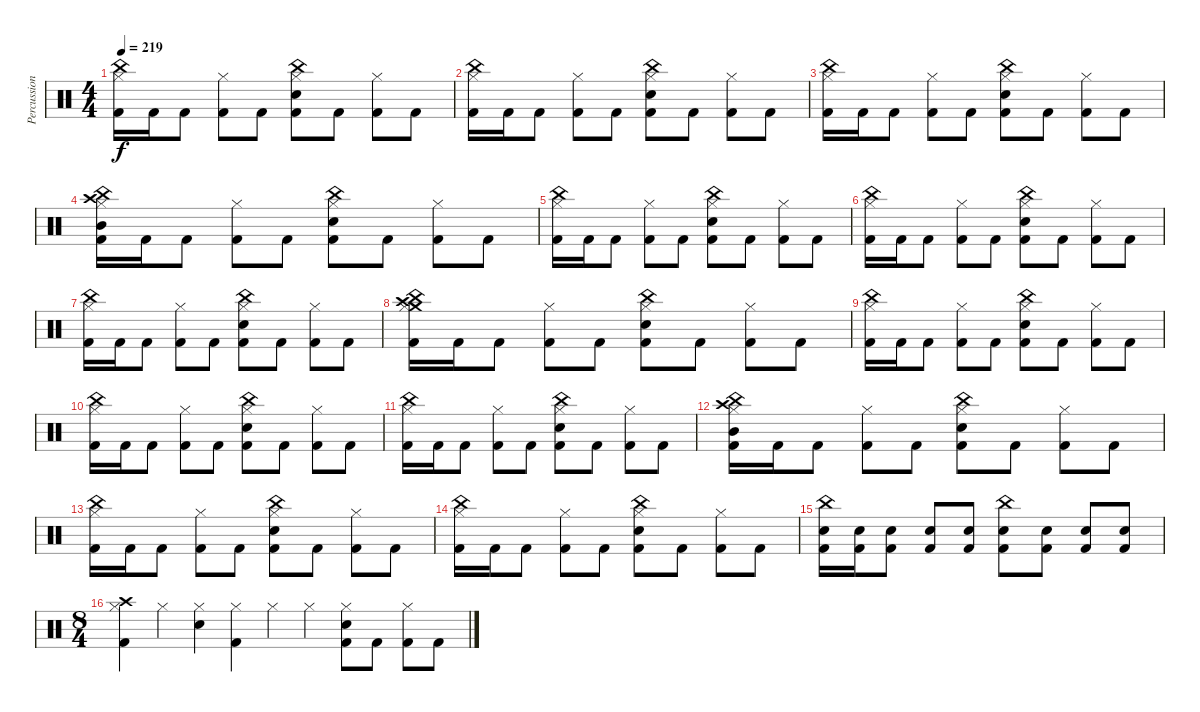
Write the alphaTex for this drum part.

\track ("Percussion" "Percussion") {instrument percussion}
\staff {score}
\articulation defaults
\ts (4 4)
\tempo 219
\clef neutral
\ks c
("China (hit)" "Hi-Hat (closed)" "Kick (hit) 2").16{dy f} "Kick (hit) 2".16 "Kick (hit) 2".8 ("Hi-Hat (closed)" "Kick (hit) 2").8 "Kick (hit) 2".8 ("China (hit)" "Hi-Hat (closed)" "Electric Snare (hit)" "Kick (hit) 2").8 "Kick (hit) 2".8 ("Hi-Hat (closed)" "Kick (hit) 2").8 "Kick (hit) 2".8 |
("China (hit)" "Hi-Hat (closed)" "Kick (hit) 2").16 "Kick (hit) 2".16 "Kick (hit) 2".8 ("Hi-Hat (closed)" "Kick (hit) 2").8 "Kick (hit) 2".8 ("China (hit)" "Hi-Hat (closed)" "Electric Snare (hit)" "Kick (hit) 2").8 "Kick (hit) 2".8 ("Hi-Hat (closed)" "Kick (hit) 2").8 "Kick (hit) 2".8 |
("China (hit)" "Hi-Hat (closed)" "Kick (hit) 2").16 "Kick (hit) 2".16 "Kick (hit) 2".8 ("Hi-Hat (closed)" "Kick (hit) 2").8 "Kick (hit) 2".8 ("China (hit)" "Hi-Hat (closed)" "Electric Snare (hit)" "Kick (hit) 2").8 "Kick (hit) 2".8 ("Hi-Hat (closed)" "Kick (hit) 2").8 "Kick (hit) 2".8 |
("China (hit)" "Crash high (hit)" "Mid Tom (hit)" "Hi-Hat (closed)" "Kick (hit) 2").16 "Kick (hit) 2".16 "Kick (hit) 2".8 ("Hi-Hat (closed)" "Kick (hit) 2").8 "Kick (hit) 2".8 ("China (hit)" "Hi-Hat (closed)" "Electric Snare (hit)" "Kick (hit) 2").8 "Kick (hit) 2".8 ("Hi-Hat (closed)" "Kick (hit) 2").8 "Kick (hit) 2".8 |
("China (hit)" "Hi-Hat (closed)" "Kick (hit) 2").16 "Kick (hit) 2".16 "Kick (hit) 2".8 ("Hi-Hat (closed)" "Kick (hit) 2").8 "Kick (hit) 2".8 ("China (hit)" "Hi-Hat (closed)" "Electric Snare (hit)" "Kick (hit) 2").8 "Kick (hit) 2".8 ("Hi-Hat (closed)" "Kick (hit) 2").8 "Kick (hit) 2".8 |
("China (hit)" "Hi-Hat (closed)" "Kick (hit) 2").16 "Kick (hit) 2".16 "Kick (hit) 2".8 ("Hi-Hat (closed)" "Kick (hit) 2").8 "Kick (hit) 2".8 ("China (hit)" "Hi-Hat (closed)" "Electric Snare (hit)" "Kick (hit) 2").8 "Kick (hit) 2".8 ("Hi-Hat (closed)" "Kick (hit) 2").8 "Kick (hit) 2".8 |
("China (hit)" "Hi-Hat (closed)" "Kick (hit) 2").16 "Kick (hit) 2".16 "Kick (hit) 2".8 ("Hi-Hat (closed)" "Kick (hit) 2").8 "Kick (hit) 2".8 ("China (hit)" "Hi-Hat (closed)" "Electric Snare (hit)" "Kick (hit) 2").8 "Kick (hit) 2".8 ("Hi-Hat (closed)" "Kick (hit) 2").8 "Kick (hit) 2".8 |
("China (hit)" "Crash high (hit)" "Crash medium (hit)" "Hi-Hat (closed)" "Kick (hit) 2").16 "Kick (hit) 2".16 "Kick (hit) 2".8 ("Hi-Hat (closed)" "Kick (hit) 2").8 "Kick (hit) 2".8 ("China (hit)" "Hi-Hat (closed)" "Electric Snare (hit)" "Kick (hit) 2").8 "Kick (hit) 2".8 ("Hi-Hat (closed)" "Kick (hit) 2").8 "Kick (hit) 2".8 |
("China (hit)" "Hi-Hat (closed)" "Kick (hit) 2").16 "Kick (hit) 2".16 "Kick (hit) 2".8 ("Hi-Hat (closed)" "Kick (hit) 2").8 "Kick (hit) 2".8 ("China (hit)" "Hi-Hat (closed)" "Electric Snare (hit)" "Kick (hit) 2").8 "Kick (hit) 2".8 ("Hi-Hat (closed)" "Kick (hit) 2").8 "Kick (hit) 2".8 |
("China (hit)" "Hi-Hat (closed)" "Kick (hit) 2").16 "Kick (hit) 2".16 "Kick (hit) 2".8 ("Hi-Hat (closed)" "Kick (hit) 2").8 "Kick (hit) 2".8 ("China (hit)" "Hi-Hat (closed)" "Electric Snare (hit)" "Kick (hit) 2").8 "Kick (hit) 2".8 ("Hi-Hat (closed)" "Kick (hit) 2").8 "Kick (hit) 2".8 |
("China (hit)" "Hi-Hat (closed)" "Kick (hit) 2").16 "Kick (hit) 2".16 "Kick (hit) 2".8 ("Hi-Hat (closed)" "Kick (hit) 2").8 "Kick (hit) 2".8 ("China (hit)" "Hi-Hat (closed)" "Electric Snare (hit)" "Kick (hit) 2").8 "Kick (hit) 2".8 ("Hi-Hat (closed)" "Kick (hit) 2").8 "Kick (hit) 2".8 |
("China (hit)" "Crash high (hit)" "Mid Tom (hit)" "Hi-Hat (closed)" "Kick (hit) 2").16 "Kick (hit) 2".16 "Kick (hit) 2".8 ("Hi-Hat (closed)" "Kick (hit) 2").8 "Kick (hit) 2".8 ("China (hit)" "Hi-Hat (closed)" "Electric Snare (hit)" "Kick (hit) 2").8 "Kick (hit) 2".8 ("Hi-Hat (closed)" "Kick (hit) 2").8 "Kick (hit) 2".8 |
("China (hit)" "Hi-Hat (closed)" "Kick (hit) 2").16 "Kick (hit) 2".16 "Kick (hit) 2".8 ("Hi-Hat (closed)" "Kick (hit) 2").8 "Kick (hit) 2".8 ("China (hit)" "Hi-Hat (closed)" "Electric Snare (hit)" "Kick (hit) 2").8 "Kick (hit) 2".8 ("Hi-Hat (closed)" "Kick (hit) 2").8 "Kick (hit) 2".8 |
("China (hit)" "Hi-Hat (closed)" "Kick (hit) 2").16 "Kick (hit) 2".16 "Kick (hit) 2".8 ("Hi-Hat (closed)" "Kick (hit) 2").8 "Kick (hit) 2".8 ("China (hit)" "Hi-Hat (closed)" "Electric Snare (hit)" "Kick (hit) 2").8 "Kick (hit) 2".8 ("Hi-Hat (closed)" "Kick (hit) 2").8 "Kick (hit) 2".8 |
("China (hit)" "Electric Snare (hit)" "Kick (hit) 2").16 ("Electric Snare (hit)" "Kick (hit) 2").16 ("Electric Snare (hit)" "Kick (hit) 2").8 ("Electric Snare (hit)" "Kick (hit) 2").8 ("Electric Snare (hit)" "Kick (hit) 2").8 ("China (hit)" "Electric Snare (hit)" "Kick (hit) 2").8 ("Electric Snare (hit)" "Kick (hit) 2").8 ("Electric Snare (hit)" "Kick (hit) 2").8 ("Electric Snare (hit)" "Kick (hit) 2").8 |
\ts (8 4)
("Crash high (hit)" "Hi-Hat (closed)" "Kick (hit) 2").4 "Hi-Hat (closed)".4 ("Hi-Hat (closed)" "Electric Snare (hit)").4 ("Hi-Hat (closed)" "Kick (hit) 2").4 "Hi-Hat (closed)".4 "Hi-Hat (closed)".4 ("Hi-Hat (closed)" "Electric Snare (hit)" "Kick (hit) 2").8 "Kick (hit) 2".8 ("Hi-Hat (closed)" "Kick (hit) 2").8 "Kick (hit) 2".8
